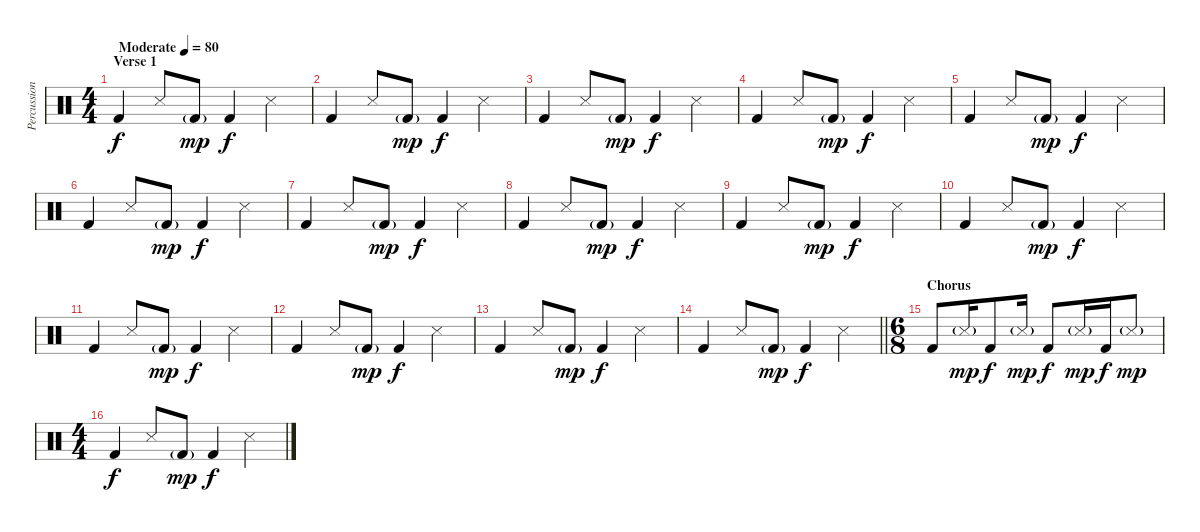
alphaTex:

\track ("Percussion" "Percussion") {instrument percussion}
\staff {score}
\articulation defaults
\ts (4 4)
\section ("" "Verse 1")
\tempo (80 "Moderate")
\clef neutral
\ks c "Kick (hit) 2".4{dy f} "Snare (side stick) 3".8 "Kick (hit) 2"{g}.8{dy mp} "Kick (hit) 2".4{dy f} "Snare (side stick) 3".4
|
"Kick (hit) 2".4 "Snare (side stick) 3".8 "Kick (hit) 2"{g}.8{dy mp} "Kick (hit) 2".4{dy f} "Snare (side stick) 3".4 |
"Kick (hit) 2".4 "Snare (side stick) 3".8 "Kick (hit) 2"{g}.8{dy mp} "Kick (hit) 2".4{dy f} "Snare (side stick) 3".4 |
"Kick (hit) 2".4 "Snare (side stick) 3".8 "Kick (hit) 2"{g}.8{dy mp} "Kick (hit) 2".4{dy f} "Snare (side stick) 3".4 |
"Kick (hit) 2".4 "Snare (side stick) 3".8 "Kick (hit) 2"{g}.8{dy mp} "Kick (hit) 2".4{dy f} "Snare (side stick) 3".4 |
"Kick (hit) 2".4 "Snare (side stick) 3".8 "Kick (hit) 2"{g}.8{dy mp} "Kick (hit) 2".4{dy f} "Snare (side stick) 3".4 |
"Kick (hit) 2".4 "Snare (side stick) 3".8 "Kick (hit) 2"{g}.8{dy mp} "Kick (hit) 2".4{dy f} "Snare (side stick) 3".4 |
"Kick (hit) 2".4 "Snare (side stick) 3".8 "Kick (hit) 2"{g}.8{dy mp} "Kick (hit) 2".4{dy f} "Snare (side stick) 3".4 |
"Kick (hit) 2".4 "Snare (side stick) 3".8 "Kick (hit) 2"{g}.8{dy mp} "Kick (hit) 2".4{dy f} "Snare (side stick) 3".4 |
"Kick (hit) 2".4 "Snare (side stick) 3".8 "Kick (hit) 2"{g}.8{dy mp} "Kick (hit) 2".4{dy f} "Snare (side stick) 3".4 |
"Kick (hit) 2".4 "Snare (side stick) 3".8 "Kick (hit) 2"{g}.8{dy mp} "Kick (hit) 2".4{dy f} "Snare (side stick) 3".4 |
"Kick (hit) 2".4 "Snare (side stick) 3".8 "Kick (hit) 2"{g}.8{dy mp} "Kick (hit) 2".4{dy f} "Snare (side stick) 3".4 |
"Kick (hit) 2".4 "Snare (side stick) 3".8 "Kick (hit) 2"{g}.8{dy mp} "Kick (hit) 2".4{dy f} "Snare (side stick) 3".4 |
\barLineRight lightlight "Kick (hit) 2".4 "Snare (side stick) 3".8 "Kick (hit) 2"{g}.8{dy mp} "Kick (hit) 2".4{dy f} "Snare (side stick) 3".4
|
\ts (6 8)
\section ("" "Chorus")
"Kick (hit) 2".8 "Snare (side stick) 3"{g}.16{dy mp} "Kick (hit) 2".8{dy f} "Snare (side stick) 3"{g}.16{dy mp} "Kick (hit) 2".8{dy f} "Snare (side stick) 3"{g}.16{dy mp} "Kick (hit) 2".16{dy f} "Snare (side stick) 3"{g}.8{dy mp} |
\ts (4 4)
"Kick (hit) 2".4{dy f} "Snare (side stick) 3".8 "Kick (hit) 2"{g}.8{dy mp} "Kick (hit) 2".4{dy f} "Snare (side stick) 3".4
